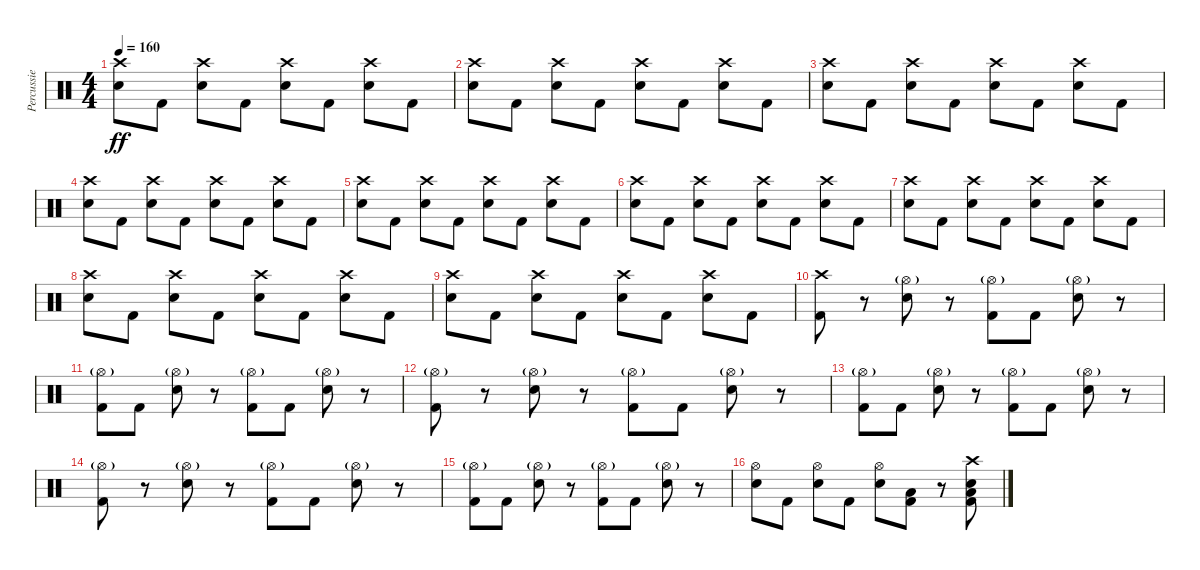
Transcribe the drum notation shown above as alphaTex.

\track ("Percussie" "Percussie") {instrument percussion}
\staff {score}
\articulation defaults
\ts (4 4)
\tempo 160
\clef neutral
\ks c
("Crash high (hit)" "Snare (hit) 2").8{dy ff} "Kick (hit) 2".8 ("Crash high (hit)" "Snare (hit) 2").8 "Kick (hit) 2".8 ("Crash high (hit)" "Snare (hit) 2").8 "Kick (hit) 2".8 ("Crash high (hit)" "Snare (hit) 2").8 "Kick (hit) 2".8 |
("Crash high (hit)" "Snare (hit) 2").8 "Kick (hit) 2".8 ("Crash high (hit)" "Snare (hit) 2").8 "Kick (hit) 2".8 ("Crash high (hit)" "Snare (hit) 2").8 "Kick (hit) 2".8 ("Crash high (hit)" "Snare (hit) 2").8 "Kick (hit) 2".8 |
("Crash high (hit)" "Snare (hit) 2").8 "Kick (hit) 2".8 ("Crash high (hit)" "Snare (hit) 2").8 "Kick (hit) 2".8 ("Crash high (hit)" "Snare (hit) 2").8 "Kick (hit) 2".8 ("Crash high (hit)" "Snare (hit) 2").8 "Kick (hit) 2".8 |
("Crash high (hit)" "Snare (hit) 2").8 "Kick (hit) 2".8 ("Crash high (hit)" "Snare (hit) 2").8 "Kick (hit) 2".8 ("Crash high (hit)" "Snare (hit) 2").8 "Kick (hit) 2".8 ("Crash high (hit)" "Snare (hit) 2").8 "Kick (hit) 2".8 |
("Crash high (hit)" "Snare (hit) 2").8 "Kick (hit) 2".8 ("Crash high (hit)" "Snare (hit) 2").8 "Kick (hit) 2".8 ("Crash high (hit)" "Snare (hit) 2").8 "Kick (hit) 2".8 ("Crash high (hit)" "Snare (hit) 2").8 "Kick (hit) 2".8 |
("Crash high (hit)" "Snare (hit) 2").8 "Kick (hit) 2".8 ("Crash high (hit)" "Snare (hit) 2").8 "Kick (hit) 2".8 ("Crash high (hit)" "Snare (hit) 2").8 "Kick (hit) 2".8 ("Crash high (hit)" "Snare (hit) 2").8 "Kick (hit) 2".8 |
("Crash high (hit)" "Snare (hit) 2").8 "Kick (hit) 2".8 ("Crash high (hit)" "Snare (hit) 2").8 "Kick (hit) 2".8 ("Crash high (hit)" "Snare (hit) 2").8 "Kick (hit) 2".8 ("Crash high (hit)" "Snare (hit) 2").8 "Kick (hit) 2".8 |
("Crash high (hit)" "Snare (hit) 2").8 "Kick (hit) 2".8 ("Crash high (hit)" "Snare (hit) 2").8 "Kick (hit) 2".8 ("Crash high (hit)" "Snare (hit) 2").8 "Kick (hit) 2".8 ("Crash high (hit)" "Snare (hit) 2").8 "Kick (hit) 2".8 |
("Crash high (hit)" "Snare (hit) 2").8 "Kick (hit) 2".8 ("Crash high (hit)" "Snare (hit) 2").8 "Kick (hit) 2".8 ("Crash high (hit)" "Snare (hit) 2").8 "Kick (hit) 2".8 ("Crash high (hit)" "Snare (hit) 2").8 "Kick (hit) 2".8 |
("Crash high (hit)" "Kick (hit) 2").8 r.8 ("Hi-Hat (open)"{g} "Snare (hit) 2").8 r.8 ("Hi-Hat (open)"{g} "Kick (hit) 2").8 "Kick (hit) 2".8 ("Hi-Hat (open)"{g} "Snare (hit) 2").8 r.8 |
("Hi-Hat (open)"{g} "Kick (hit) 2").8 "Kick (hit) 2".8 ("Hi-Hat (open)"{g} "Snare (hit) 2").8 r.8 ("Hi-Hat (open)"{g} "Kick (hit) 2").8 "Kick (hit) 2".8 ("Hi-Hat (open)"{g} "Snare (hit) 2").8 r.8 |
("Hi-Hat (open)"{g} "Kick (hit) 2").8 r.8 ("Hi-Hat (open)"{g} "Snare (hit) 2").8 r.8 ("Hi-Hat (open)"{g} "Kick (hit) 2").8 "Kick (hit) 2".8 ("Hi-Hat (open)"{g} "Snare (hit) 2").8 r.8 |
("Hi-Hat (open)"{g} "Kick (hit) 2").8 "Kick (hit) 2".8 ("Hi-Hat (open)"{g} "Snare (hit) 2").8 r.8 ("Hi-Hat (open)"{g} "Kick (hit) 2").8 "Kick (hit) 2".8 ("Hi-Hat (open)"{g} "Snare (hit) 2").8 r.8 |
("Hi-Hat (open)"{g} "Kick (hit) 2").8 r.8 ("Hi-Hat (open)"{g} "Snare (hit) 2").8 r.8 ("Hi-Hat (open)"{g} "Kick (hit) 2").8 "Kick (hit) 2".8 ("Hi-Hat (open)"{g} "Snare (hit) 2").8 r.8 |
("Hi-Hat (open)"{g} "Kick (hit) 2").8 "Kick (hit) 2".8 ("Hi-Hat (open)"{g} "Snare (hit) 2").8 r.8 ("Hi-Hat (open)"{g} "Kick (hit) 2").8 "Kick (hit) 2".8 ("Hi-Hat (open)"{g} "Snare (hit) 2").8 r.8 |
("Hi-Hat (open)" "Snare (hit) 2").8 "Kick (hit) 2".8 ("Hi-Hat (open)" "Snare (hit) 2").8 "Kick (hit) 2".8 ("Hi-Hat (open)" "Snare (hit) 2").8 ("Low Floor Tom (hit)" "Kick (hit) 2").8 r.8 ("Crash high (hit)" "Low Floor Tom (hit)" "Snare (hit) 2" "Kick (hit) 2").8
